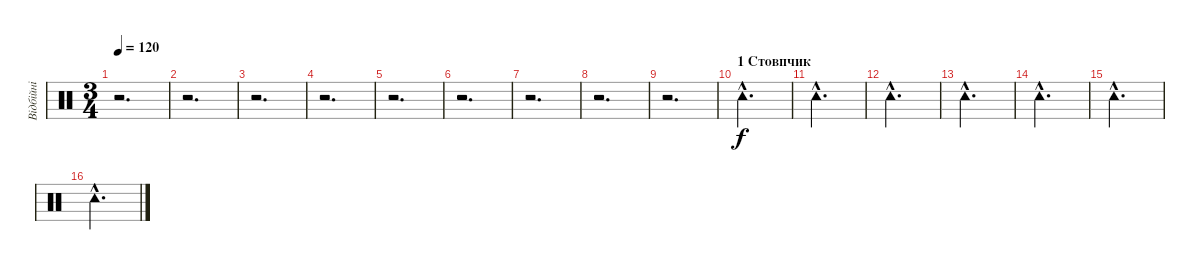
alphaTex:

\track ("Вiдбiйнi" "Вiдбiйнi") {instrument percussion}
\staff {score}
\articulation defaults
\ts (3 4)
\tempo 120
\clef neutral
\ks c
r.2{d dy f} |
r.2{d} |
r.2{d} |
r.2{d} |
r.2{d} |
r.2{d} |
r.2{d} |
r.2{d} |
r.2{d} |
\section ("" "1 Стовпчик")
"Tambourine (hit)"{hac}.2{d} |
"Tambourine (hit)"{hac}.2{d} |
"Tambourine (hit)"{hac}.2{d} |
"Tambourine (hit)"{hac}.2{d} |
"Tambourine (hit)"{hac}.2{d} |
"Tambourine (hit)"{hac}.2{d} |
"Tambourine (hit)"{hac}.2{d}
